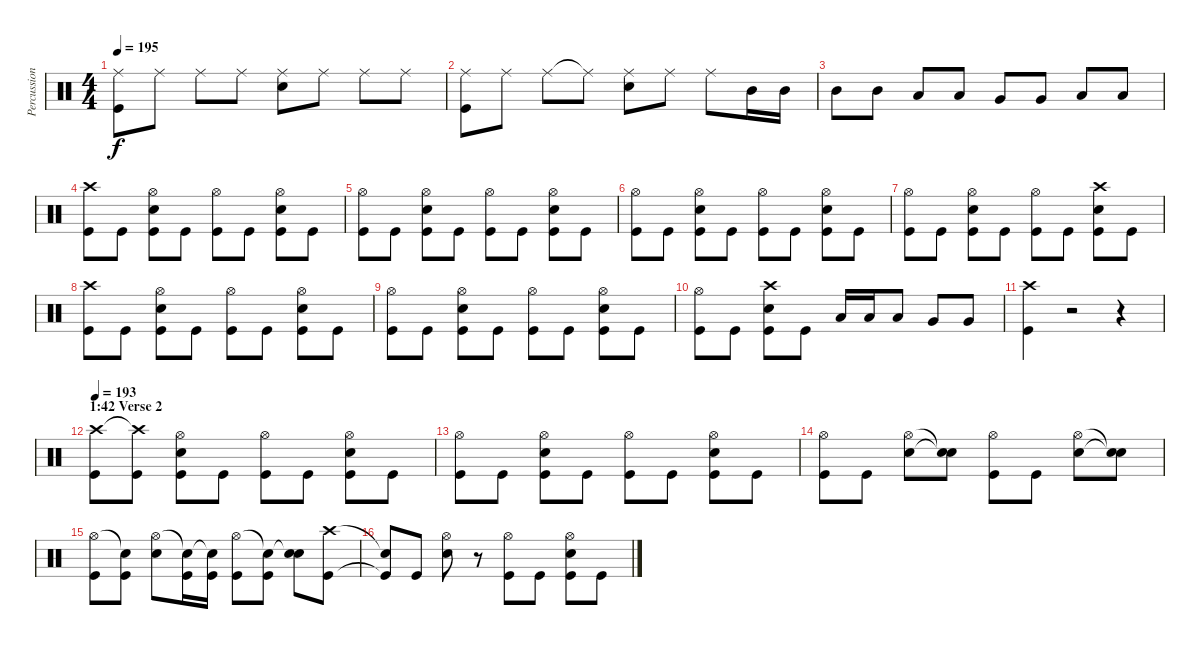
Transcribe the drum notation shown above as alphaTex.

\track ("Percussion" "Percussion") {instrument percussion}
\staff {score}
\articulation defaults
\ts (4 4)
\tempo 195
\clef neutral
\ks c
("Ride (middle)" "Kick (hit)").8{dy f} "Ride (middle)".8 "Ride (middle)".8 "Ride (middle)".8 ("Ride (middle)" "Snare (hit) 2").8 "Ride (middle)".8 "Ride (middle)".8 "Ride (middle)".8 |
("Ride (middle)" "Kick (hit)").8 "Ride (middle)".8 "Ride (middle)".8 "Ride (middle)"{t}.8 ("Ride (middle)" "Snare (hit) 2").8 "Ride (middle)".8 "Ride (middle)".8 "Mid Tom (hit)".16 "Mid Tom (hit)".16 |
"Mid Tom (hit)".8 "Mid Tom (hit)".8 "Low Tom (hit)".8 "Low Tom (hit)".8 "Very Low Tom (hit)".8 "Very Low Tom (hit)".8 "Low Floor Tom (hit)".8 "Low Floor Tom (hit)".8 |
("Crash high (hit)" "Kick (hit)").8 "Kick (hit)".8 ("Hi-Hat (open)" "Snare (hit) 2" "Kick (hit)").8 "Kick (hit)".8 ("Hi-Hat (open)" "Kick (hit)").8 "Kick (hit)".8 ("Hi-Hat (open)" "Snare (hit) 2" "Kick (hit)").8 "Kick (hit)".8 |
("Hi-Hat (open)" "Kick (hit)").8 "Kick (hit)".8 ("Hi-Hat (open)" "Snare (hit) 2" "Kick (hit)").8 "Kick (hit)".8 ("Hi-Hat (open)" "Kick (hit)").8 "Kick (hit)".8 ("Hi-Hat (open)" "Snare (hit) 2" "Kick (hit)").8 "Kick (hit)".8 |
("Hi-Hat (open)" "Kick (hit)").8 "Kick (hit)".8 ("Hi-Hat (open)" "Snare (hit) 2" "Kick (hit)").8 "Kick (hit)".8 ("Hi-Hat (open)" "Kick (hit)").8 "Kick (hit)".8 ("Hi-Hat (open)" "Snare (hit) 2" "Kick (hit)").8 "Kick (hit)".8 |
("Hi-Hat (open)" "Kick (hit)").8 "Kick (hit)".8 ("Hi-Hat (open)" "Snare (hit) 2" "Kick (hit)").8 "Kick (hit)".8 ("Hi-Hat (open)" "Kick (hit)").8 "Kick (hit)".8 ("Crash high (hit)" "Snare (hit) 2" "Kick (hit)").8 "Kick (hit)".8 |
("Crash high (hit)" "Kick (hit)").8 "Kick (hit)".8 ("Hi-Hat (open)" "Snare (hit) 2" "Kick (hit)").8 "Kick (hit)".8 ("Hi-Hat (open)" "Kick (hit)").8 "Kick (hit)".8 ("Hi-Hat (open)" "Snare (hit) 2" "Kick (hit)").8 "Kick (hit)".8 |
("Hi-Hat (open)" "Kick (hit)").8 "Kick (hit)".8 ("Hi-Hat (open)" "Snare (hit) 2" "Kick (hit)").8 "Kick (hit)".8 ("Hi-Hat (open)" "Kick (hit)").8 "Kick (hit)".8 ("Hi-Hat (open)" "Snare (hit) 2" "Kick (hit)").8 "Kick (hit)".8 |
("Hi-Hat (open)" "Kick (hit)").8 "Kick (hit)".8 ("Crash high (hit)" "Snare (hit) 2" "Kick (hit)").8 "Kick (hit)".8 "Low Tom (hit)".16 "Low Tom (hit)".16 "Low Tom (hit)".8 "Very Low Tom (hit)".8 "Very Low Tom (hit)".8 |
("Crash high (hit)" "Kick (hit)").4 r.2 r.4 |
\section ("" "1:42 Verse 2")
\tempo 193
("Crash high (hit)" "Kick (hit)").8 ("Crash high (hit)"{t} "Kick (hit)").8 ("Hi-Hat (open)" "Snare (hit) 2" "Kick (hit)").8 "Kick (hit)".8 ("Hi-Hat (open)" "Kick (hit)").8 "Kick (hit)".8 ("Hi-Hat (open)" "Snare (hit) 2" "Kick (hit)").8 "Kick (hit)".8 |
("Hi-Hat (open)" "Kick (hit)").8 "Kick (hit)".8 ("Hi-Hat (open)" "Snare (hit) 2" "Kick (hit)").8 "Kick (hit)".8 ("Hi-Hat (open)" "Kick (hit)").8 "Kick (hit)".8 ("Hi-Hat (open)" "Snare (hit) 2" "Kick (hit)").8 "Kick (hit)".8 |
("Hi-Hat (open)" "Kick (hit)").8 "Kick (hit)".8 ("Hi-Hat (open)" "Snare (hit) 2").8 ("Snare (hit)"{t} "Snare (hit)"{t}).8 ("Hi-Hat (open)" "Kick (hit)").8 "Kick (hit)".8 ("Hi-Hat (open)" "Snare (hit) 2").8 ("Snare (hit)"{t} "Snare (hit)"{t}).8 |
("Hi-Hat (open)" "Kick (hit)").8 ("Snare (hit)"{t} "Kick (hit)").8 ("Hi-Hat (open)" "Snare (hit) 2").8 ("Snare (hit)"{t} "Kick (hit)").16 ("Snare (hit)"{t} "Kick (hit)").16 ("Hi-Hat (open)" "Kick (hit)").8 ("Snare (hit)"{t} "Kick (hit)").8 ("Snare (hit)"{t} "Snare (hit) 2").8 ("Crash high (hit)" "Kick (hit)").8 |
("Snare (hit)"{t} "Kick (hit)"{t}).8 "Kick (hit)".8 ("Hi-Hat (open)" "Snare (hit) 2").8 r.8 ("Hi-Hat (open)" "Kick (hit)").8 "Kick (hit)".8 ("Hi-Hat (open)" "Snare (hit) 2" "Kick (hit)").8 "Kick (hit)".8
